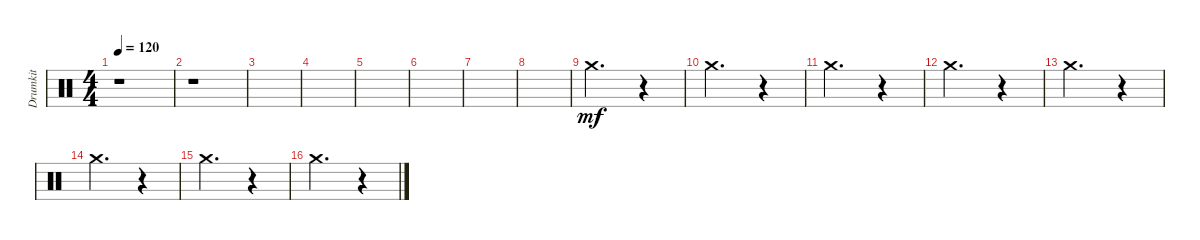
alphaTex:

\track ("Drumkit" "Drumkit") {instrument percussion}
\staff {score}
\articulation defaults
\ts (4 4)
\tempo 120
\clef neutral
\ks c
r.1{dy mf} |
r.1 |
|
|
|
|
|
|
"Crash medium (hit)".2{d} r.4 |
"Crash medium (hit)".2{d} r.4 |
"Crash medium (hit)".2{d} r.4 |
"Crash medium (hit)".2{d} r.4 |
"Crash medium (hit)".2{d} r.4 |
"Crash medium (hit)".2{d} r.4 |
"Crash medium (hit)".2{d} r.4 |
"Crash medium (hit)".2{d} r.4
